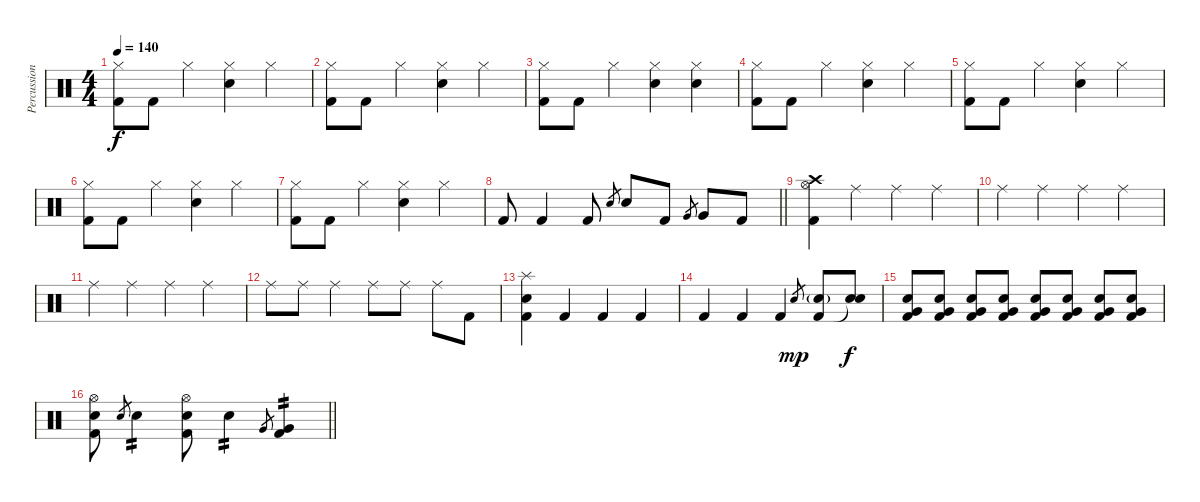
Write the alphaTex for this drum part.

\track ("Percussion" "Percussion") {instrument percussion}
\staff {score}
\articulation defaults
\ts (4 4)
\tempo 140
\clef neutral
\ks c
("Hi-Hat (closed)" "Kick (hit) 2").8{dy f} "Kick (hit) 2".8 "Hi-Hat (closed)".4 ("Hi-Hat (closed)" "Electric Snare (hit)").4 "Hi-Hat (closed)".4 |
("Hi-Hat (closed)" "Kick (hit) 2").8 "Kick (hit) 2".8 "Hi-Hat (closed)".4 ("Hi-Hat (closed)" "Electric Snare (hit)").4 "Hi-Hat (closed)".4 |
("Hi-Hat (closed)" "Kick (hit) 2").8 "Kick (hit) 2".8 "Hi-Hat (closed)".4 ("Hi-Hat (closed)" "Electric Snare (hit)").4 ("Hi-Hat (closed)" "Electric Snare (hit)").4 |
("Hi-Hat (closed)" "Kick (hit) 2").8 "Kick (hit) 2".8 "Hi-Hat (closed)".4 ("Hi-Hat (closed)" "Electric Snare (hit)").4 "Hi-Hat (closed)".4 |
("Hi-Hat (closed)" "Kick (hit) 2").8 "Kick (hit) 2".8 "Hi-Hat (closed)".4 ("Hi-Hat (closed)" "Electric Snare (hit)").4 "Hi-Hat (closed)".4 |
("Hi-Hat (closed)" "Kick (hit) 2").8 "Kick (hit) 2".8 "Hi-Hat (closed)".4 ("Hi-Hat (closed)" "Electric Snare (hit)").4 "Hi-Hat (closed)".4 |
("Hi-Hat (closed)" "Kick (hit) 2").8 "Kick (hit) 2".8 "Hi-Hat (closed)".4 ("Hi-Hat (closed)" "Electric Snare (hit)").4 "Hi-Hat (closed)".4 |
\barLineRight lightlight "Kick (hit) 2".8 "Kick (hit) 2".4 "Kick (hit) 2".8 "Electric Snare (hit)".8{gr} "Electric Snare (hit)".8 "Kick (hit) 2".8 "Very Low Tom (hit)".8{gr} "Very Low Tom (hit)".8 "Kick (hit) 2".8
|
("Crash high (hit)" "Hi-Hat (open)" "Kick (hit) 2").4 "Ride (middle)".4 "Ride (middle)".4 "Ride (middle)".4 |
"Ride (middle)".4 "Ride (middle)".4 "Ride (middle)".4 "Ride (middle)".4 |
"Ride (middle)".4 "Ride (middle)".4 "Ride (middle)".4 "Ride (middle)".4 |
"Ride (middle)".8 "Ride (middle)".8 "Ride (middle)".4 "Ride (middle)".8 "Ride (middle)".8 "Ride (middle)".8 "Kick (hit) 2".8 |
("Splash (hit)" "Electric Snare (hit)" "Kick (hit) 2").4 "Kick (hit) 2".4 "Kick (hit) 2".4 "Kick (hit) 2".4 |
"Kick (hit) 2".4 "Kick (hit) 2".4 "Kick (hit) 2".4 "Electric Snare (hit)".8{gr dy mp} ("Electric Snare (hit)"{g} "Kick (hit) 2").8 ("Electric Snare (hit)" "Snare (hit)"{t}).8{dy f} |
("Electric Snare (hit)" "Very Low Tom (hit)" "Kick (hit) 2").8 ("Electric Snare (hit)" "Very Low Tom (hit)" "Kick (hit) 2").8 ("Electric Snare (hit)" "Very Low Tom (hit)" "Kick (hit) 2").8 ("Electric Snare (hit)" "Very Low Tom (hit)" "Kick (hit) 2").8 ("Electric Snare (hit)" "Very Low Tom (hit)" "Kick (hit) 2").8 ("Electric Snare (hit)" "Very Low Tom (hit)" "Kick (hit) 2").8 ("Electric Snare (hit)" "Very Low Tom (hit)" "Kick (hit) 2").8 ("Electric Snare (hit)" "Very Low Tom (hit)" "Kick (hit) 2").8 |
\barLineRight lightlight
("Hi-Hat (open)" "Electric Snare (hit)" "Kick (hit) 2").8 "Electric Snare (hit)".8{gr} "Electric Snare (hit)".4{tp 2} ("Hi-Hat (open)" "Electric Snare (hit)" "Kick (hit) 2").8 "Electric Snare (hit)".4{tp 2} "Very Low Tom (hit)".8{gr} ("Very Low Tom (hit)" "Kick (hit) 2").4{tp 2}
